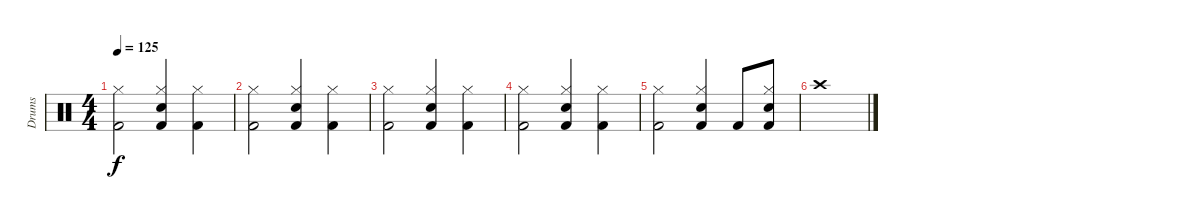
\track ("Drums" "Drums") {instrument percussion}
\staff {score}
\articulation defaults
\ts (4 4)
\tempo 125
\clef neutral
\ks c
("Kick (hit) 2" "Hi-Hat (closed)").2{dy f} ("Hi-Hat (closed)" "Snare (hit) 2" "Kick (hit) 2").4 ("Hi-Hat (closed)" "Kick (hit) 2").4 |
("Kick (hit) 2" "Hi-Hat (closed)").2 ("Hi-Hat (closed)" "Snare (hit) 2" "Kick (hit) 2").4 ("Hi-Hat (closed)" "Kick (hit) 2").4 |
("Kick (hit) 2" "Hi-Hat (closed)").2 ("Hi-Hat (closed)" "Snare (hit) 2" "Kick (hit) 2").4 ("Hi-Hat (closed)" "Kick (hit) 2").4 |
("Kick (hit) 2" "Hi-Hat (closed)").2 ("Hi-Hat (closed)" "Snare (hit) 2" "Kick (hit) 2").4 ("Hi-Hat (closed)" "Kick (hit) 2").4 |
("Kick (hit) 2" "Hi-Hat (closed)").2 ("Hi-Hat (closed)" "Snare (hit) 2" "Kick (hit) 2").4 "Kick (hit) 2".8 ("Kick (hit) 2" "Snare (hit) 2" "Hi-Hat (closed)").8 |
"Crash high (hit)".1
